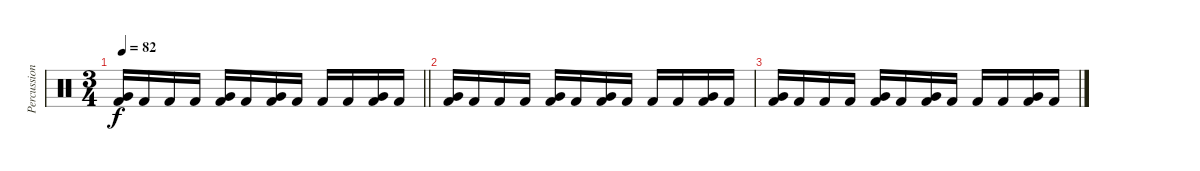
\track ("Percussion" "Percussion") {instrument percussion}
\staff {score}
\articulation defaults
\ts (3 4)
\tempo 82
\clef neutral
\barLineRight lightlight
\ks c
("Very Low Tom (hit)" "Kick (hit) 2").16{dy f volume 0} "Kick (hit) 2".16 "Kick (hit) 2".16 "Kick (hit) 2".16 ("Very Low Tom (hit)" "Kick (hit) 2").16 "Kick (hit) 2".16 ("Very Low Tom (hit)" "Kick (hit) 2").16 "Kick (hit) 2".16 "Kick (hit) 2".16 "Kick (hit) 2".16 ("Very Low Tom (hit)" "Kick (hit) 2").16 "Kick (hit) 2".16 |
("Very Low Tom (hit)" "Kick (hit) 2").16 "Kick (hit) 2".16 "Kick (hit) 2".16 "Kick (hit) 2".16 ("Very Low Tom (hit)" "Kick (hit) 2").16 "Kick (hit) 2".16 ("Very Low Tom (hit)" "Kick (hit) 2").16 "Kick (hit) 2".16 "Kick (hit) 2".16 "Kick (hit) 2".16 ("Very Low Tom (hit)" "Kick (hit) 2").16 "Kick (hit) 2".16 |
("Very Low Tom (hit)" "Kick (hit) 2").16 "Kick (hit) 2".16 "Kick (hit) 2".16 "Kick (hit) 2".16 ("Very Low Tom (hit)" "Kick (hit) 2").16 "Kick (hit) 2".16 ("Very Low Tom (hit)" "Kick (hit) 2").16 "Kick (hit) 2".16 "Kick (hit) 2".16 "Kick (hit) 2".16 ("Very Low Tom (hit)" "Kick (hit) 2").16 "Kick (hit) 2".16
